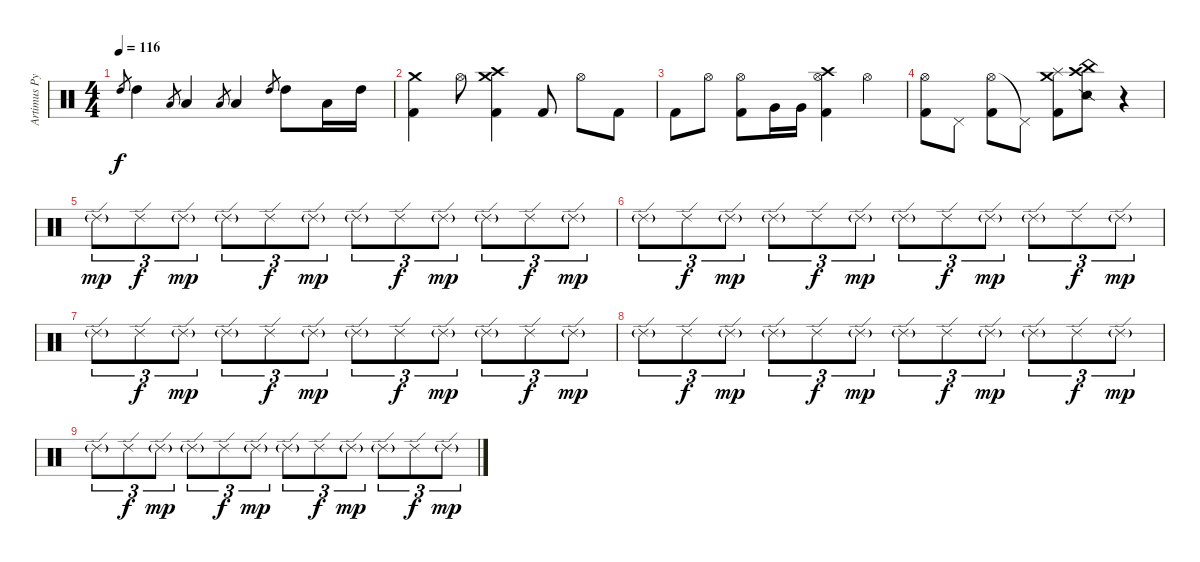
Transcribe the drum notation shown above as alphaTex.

\track ("Artimus Pyle - Drums and Percussion" "Artimus Py") {instrument percussion}
\staff {score}
\articulation defaults
\ts (4 4)
\tempo 116
\clef neutral
\ks c "High Tom (hit)".8{gr dy f} "High Tom (hit)".4 "Low Floor Tom (hit)".8{gr} "Low Floor Tom (hit)".4 "Low Floor Tom (hit)".8{gr} "Low Floor Tom (hit)".4 "High Tom (hit)".8{gr} "High Tom (hit)".8 "Low Floor Tom (hit)".16 "High Tom (hit)".16
|
("Crash medium (hit)" "Kick (hit) 2").4 "Hi-Hat (open)".8 ("Crash medium (hit)" "Crash high (hit)" "Kick (hit) 2").4 "Kick (hit) 2".8 "Hi-Hat (open)".8 "Kick (hit) 2".8 |
"Kick (hit) 2".8 "Hi-Hat (open)".8 ("Hi-Hat (open)" "Kick (hit) 2").8 "Very Low Tom (hit)".16 "Very Low Tom (hit)".16 ("Crash high (hit)" "Hi-Hat (open)" "Kick (hit) 2").4 "Hi-Hat (open)".4 |
("Hi-Hat (open)" "Kick (hit) 2").8 "Pedal Hi-Hat (hit)".8 ("Hi-Hat (open)" "Kick (hit) 2").8 "Pedal Hi-Hat (hit)"{t}.8 ("Crash medium (hit)" "Splash (hit)" "Kick (hit) 2").8 ("Crash high (hit)" "China (hit)" "Snare (side stick) 2").8 r.4 |
"Ride (edge) 2"{g}.8{tu (3 2) dy mp} "Ride (edge) 2".8{tu (3 2) dy f} "Ride (edge) 2"{g}.8{tu (3 2) dy mp} "Ride (edge) 2"{g}.8{tu (3 2)} "Ride (edge) 2".8{tu (3 2) dy f} "Ride (edge) 2"{g}.8{tu (3 2) dy mp} "Ride (edge) 2"{g}.8{tu (3 2)} "Ride (edge) 2".8{tu (3 2) dy f} "Ride (edge) 2"{g}.8{tu (3 2) dy mp} "Ride (edge) 2"{g}.8{tu (3 2)} "Ride (edge) 2".8{tu (3 2) dy f} "Ride (edge) 2"{g}.8{tu (3 2) dy mp} |
"Ride (edge) 2"{g}.8{tu (3 2)} "Ride (edge) 2".8{tu (3 2) dy f} "Ride (edge) 2"{g}.8{tu (3 2) dy mp} "Ride (edge) 2"{g}.8{tu (3 2)} "Ride (edge) 2".8{tu (3 2) dy f} "Ride (edge) 2"{g}.8{tu (3 2) dy mp} "Ride (edge) 2"{g}.8{tu (3 2)} "Ride (edge) 2".8{tu (3 2) dy f} "Ride (edge) 2"{g}.8{tu (3 2) dy mp} "Ride (edge) 2"{g}.8{tu (3 2)} "Ride (edge) 2".8{tu (3 2) dy f} "Ride (edge) 2"{g}.8{tu (3 2) dy mp} |
"Ride (edge) 2"{g}.8{tu (3 2)} "Ride (edge) 2".8{tu (3 2) dy f} "Ride (edge) 2"{g}.8{tu (3 2) dy mp} "Ride (edge) 2"{g}.8{tu (3 2)} "Ride (edge) 2".8{tu (3 2) dy f} "Ride (edge) 2"{g}.8{tu (3 2) dy mp} "Ride (edge) 2"{g}.8{tu (3 2)} "Ride (edge) 2".8{tu (3 2) dy f} "Ride (edge) 2"{g}.8{tu (3 2) dy mp} "Ride (edge) 2"{g}.8{tu (3 2)} "Ride (edge) 2".8{tu (3 2) dy f} "Ride (edge) 2"{g}.8{tu (3 2) dy mp} |
"Ride (edge) 2"{g}.8{tu (3 2)} "Ride (edge) 2".8{tu (3 2) dy f} "Ride (edge) 2"{g}.8{tu (3 2) dy mp} "Ride (edge) 2"{g}.8{tu (3 2)} "Ride (edge) 2".8{tu (3 2) dy f} "Ride (edge) 2"{g}.8{tu (3 2) dy mp} "Ride (edge) 2"{g}.8{tu (3 2)} "Ride (edge) 2".8{tu (3 2) dy f} "Ride (edge) 2"{g}.8{tu (3 2) dy mp} "Ride (edge) 2"{g}.8{tu (3 2)} "Ride (edge) 2".8{tu (3 2) dy f} "Ride (edge) 2"{g}.8{tu (3 2) dy mp} |
"Ride (edge) 2"{g}.8{tu (3 2)} "Ride (edge) 2".8{tu (3 2) dy f} "Ride (edge) 2"{g}.8{tu (3 2) dy mp} "Ride (edge) 2"{g}.8{tu (3 2)} "Ride (edge) 2".8{tu (3 2) dy f} "Ride (edge) 2"{g}.8{tu (3 2) dy mp} "Ride (edge) 2"{g}.8{tu (3 2)} "Ride (edge) 2".8{tu (3 2) dy f} "Ride (edge) 2"{g}.8{tu (3 2) dy mp} "Ride (edge) 2"{g}.8{tu (3 2)} "Ride (edge) 2".8{tu (3 2) dy f} "Ride (edge) 2"{g}.8{tu (3 2) dy mp}
